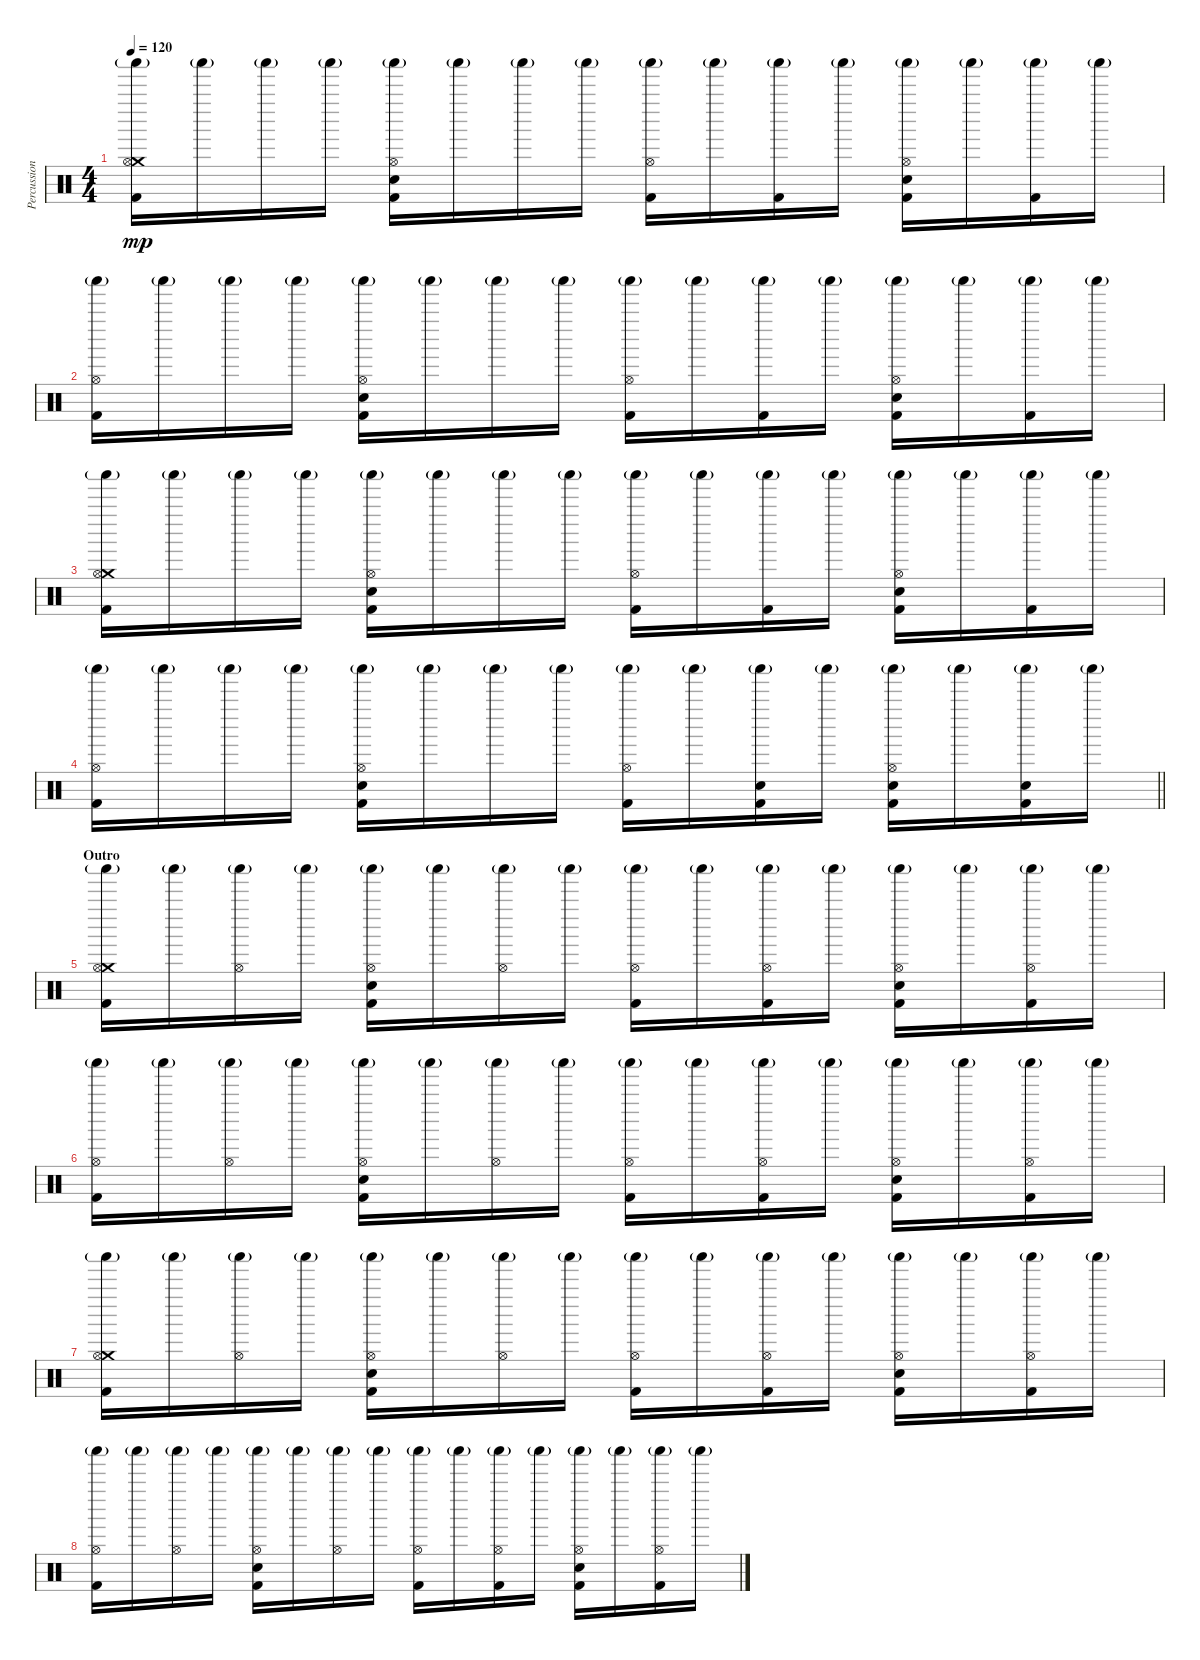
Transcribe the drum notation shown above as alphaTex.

\track ("Percussions" "Percussion") {instrument percussion}
\staff {score}
\articulation defaults
\ts (4 4)
\tempo 120
\clef neutral
\ks c
("Crash medium (hit)" "Hi-Hat (open)" "Shaker (hit)"{g} "Kick (hit) 2").16{dy mp} "Shaker (hit)"{g}.16 "Shaker (hit)"{g}.16 "Shaker (hit)"{g}.16 ("Hi-Hat (open)" "Electric Snare (hit)" "Shaker (hit)"{g} "Kick (hit) 2").16 "Shaker (hit)"{g}.16 "Shaker (hit)"{g}.16 "Shaker (hit)"{g}.16 ("Hi-Hat (open)" "Shaker (hit)"{g} "Kick (hit) 2").16 "Shaker (hit)"{g}.16 ("Shaker (hit)"{g} "Kick (hit) 2").16 "Shaker (hit)"{g}.16 ("Hi-Hat (open)" "Electric Snare (hit)" "Shaker (hit)"{g} "Kick (hit) 2").16 "Shaker (hit)"{g}.16 ("Shaker (hit)"{g} "Kick (hit) 2").16 "Shaker (hit)"{g}.16 |
("Hi-Hat (open)" "Shaker (hit)"{g} "Kick (hit) 2").16 "Shaker (hit)"{g}.16 "Shaker (hit)"{g}.16 "Shaker (hit)"{g}.16 ("Hi-Hat (open)" "Electric Snare (hit)" "Shaker (hit)"{g} "Kick (hit) 2").16 "Shaker (hit)"{g}.16 "Shaker (hit)"{g}.16 "Shaker (hit)"{g}.16 ("Hi-Hat (open)" "Shaker (hit)"{g} "Kick (hit) 2").16 "Shaker (hit)"{g}.16 ("Shaker (hit)"{g} "Kick (hit) 2").16 "Shaker (hit)"{g}.16 ("Hi-Hat (open)" "Electric Snare (hit)" "Shaker (hit)"{g} "Kick (hit) 2").16 "Shaker (hit)"{g}.16 ("Shaker (hit)"{g} "Kick (hit) 2").16 "Shaker (hit)"{g}.16 |
("Crash medium (hit)" "Hi-Hat (open)" "Shaker (hit)"{g} "Kick (hit) 2").16 "Shaker (hit)"{g}.16 "Shaker (hit)"{g}.16 "Shaker (hit)"{g}.16 ("Hi-Hat (open)" "Electric Snare (hit)" "Shaker (hit)"{g} "Kick (hit) 2").16 "Shaker (hit)"{g}.16 "Shaker (hit)"{g}.16 "Shaker (hit)"{g}.16 ("Hi-Hat (open)" "Shaker (hit)"{g} "Kick (hit) 2").16 "Shaker (hit)"{g}.16 ("Shaker (hit)"{g} "Kick (hit) 2").16 "Shaker (hit)"{g}.16 ("Hi-Hat (open)" "Electric Snare (hit)" "Shaker (hit)"{g} "Kick (hit) 2").16 "Shaker (hit)"{g}.16 ("Shaker (hit)"{g} "Kick (hit) 2").16 "Shaker (hit)"{g}.16 |
\barLineRight lightlight
("Hi-Hat (open)" "Shaker (hit)"{g} "Kick (hit) 2").16 "Shaker (hit)"{g}.16 "Shaker (hit)"{g}.16 "Shaker (hit)"{g}.16 ("Hi-Hat (open)" "Electric Snare (hit)" "Shaker (hit)"{g} "Kick (hit) 2").16 "Shaker (hit)"{g}.16 "Shaker (hit)"{g}.16 "Shaker (hit)"{g}.16 ("Hi-Hat (open)" "Shaker (hit)"{g} "Kick (hit) 2").16 "Shaker (hit)"{g}.16 ("Electric Snare (hit)" "Shaker (hit)"{g} "Kick (hit) 2").16 "Shaker (hit)"{g}.16 ("Hi-Hat (open)" "Electric Snare (hit)" "Shaker (hit)"{g} "Kick (hit) 2").16 "Shaker (hit)"{g}.16 ("Electric Snare (hit)" "Shaker (hit)"{g} "Kick (hit) 2").16 "Shaker (hit)"{g}.16 |
\section ("" "Outro")
("Crash medium (hit)" "Hi-Hat (open)" "Shaker (hit)"{g} "Kick (hit) 2").16 "Shaker (hit)"{g}.16 ("Hi-Hat (open)" "Shaker (hit)"{g}).16 "Shaker (hit)"{g}.16 ("Hi-Hat (open)" "Electric Snare (hit)" "Shaker (hit)"{g} "Kick (hit) 2").16 "Shaker (hit)"{g}.16 ("Hi-Hat (open)" "Shaker (hit)"{g}).16 "Shaker (hit)"{g}.16 ("Hi-Hat (open)" "Shaker (hit)"{g} "Kick (hit) 2").16 "Shaker (hit)"{g}.16 ("Hi-Hat (open)" "Shaker (hit)"{g} "Kick (hit) 2").16 "Shaker (hit)"{g}.16 ("Hi-Hat (open)" "Electric Snare (hit)" "Shaker (hit)"{g} "Kick (hit) 2").16 "Shaker (hit)"{g}.16 ("Hi-Hat (open)" "Shaker (hit)"{g} "Kick (hit) 2").16 "Shaker (hit)"{g}.16 |
("Hi-Hat (open)" "Shaker (hit)"{g} "Kick (hit) 2").16 "Shaker (hit)"{g}.16 ("Hi-Hat (open)" "Shaker (hit)"{g}).16 "Shaker (hit)"{g}.16 ("Hi-Hat (open)" "Electric Snare (hit)" "Shaker (hit)"{g} "Kick (hit) 2").16 "Shaker (hit)"{g}.16 ("Hi-Hat (open)" "Shaker (hit)"{g}).16 "Shaker (hit)"{g}.16 ("Hi-Hat (open)" "Shaker (hit)"{g} "Kick (hit) 2").16 "Shaker (hit)"{g}.16 ("Hi-Hat (open)" "Shaker (hit)"{g} "Kick (hit) 2").16 "Shaker (hit)"{g}.16 ("Hi-Hat (open)" "Electric Snare (hit)" "Shaker (hit)"{g} "Kick (hit) 2").16 "Shaker (hit)"{g}.16 ("Hi-Hat (open)" "Shaker (hit)"{g} "Kick (hit) 2").16 "Shaker (hit)"{g}.16 |
("Crash medium (hit)" "Hi-Hat (open)" "Shaker (hit)"{g} "Kick (hit) 2").16 "Shaker (hit)"{g}.16 ("Hi-Hat (open)" "Shaker (hit)"{g}).16 "Shaker (hit)"{g}.16 ("Hi-Hat (open)" "Electric Snare (hit)" "Shaker (hit)"{g} "Kick (hit) 2").16 "Shaker (hit)"{g}.16 ("Hi-Hat (open)" "Shaker (hit)"{g}).16 "Shaker (hit)"{g}.16 ("Hi-Hat (open)" "Shaker (hit)"{g} "Kick (hit) 2").16 "Shaker (hit)"{g}.16 ("Hi-Hat (open)" "Shaker (hit)"{g} "Kick (hit) 2").16 "Shaker (hit)"{g}.16 ("Hi-Hat (open)" "Electric Snare (hit)" "Shaker (hit)"{g} "Kick (hit) 2").16 "Shaker (hit)"{g}.16 ("Hi-Hat (open)" "Shaker (hit)"{g} "Kick (hit) 2").16 "Shaker (hit)"{g}.16 |
("Hi-Hat (open)" "Shaker (hit)"{g} "Kick (hit) 2").16 "Shaker (hit)"{g}.16 ("Hi-Hat (open)" "Shaker (hit)"{g}).16 "Shaker (hit)"{g}.16 ("Hi-Hat (open)" "Electric Snare (hit)" "Shaker (hit)"{g} "Kick (hit) 2").16 "Shaker (hit)"{g}.16 ("Hi-Hat (open)" "Shaker (hit)"{g}).16 "Shaker (hit)"{g}.16 ("Hi-Hat (open)" "Shaker (hit)"{g} "Kick (hit) 2").16 "Shaker (hit)"{g}.16 ("Hi-Hat (open)" "Shaker (hit)"{g} "Kick (hit) 2").16 "Shaker (hit)"{g}.16 ("Hi-Hat (open)" "Electric Snare (hit)" "Shaker (hit)"{g} "Kick (hit) 2").16 "Shaker (hit)"{g}.16 ("Hi-Hat (open)" "Shaker (hit)"{g} "Kick (hit) 2").16 "Shaker (hit)"{g}.16
